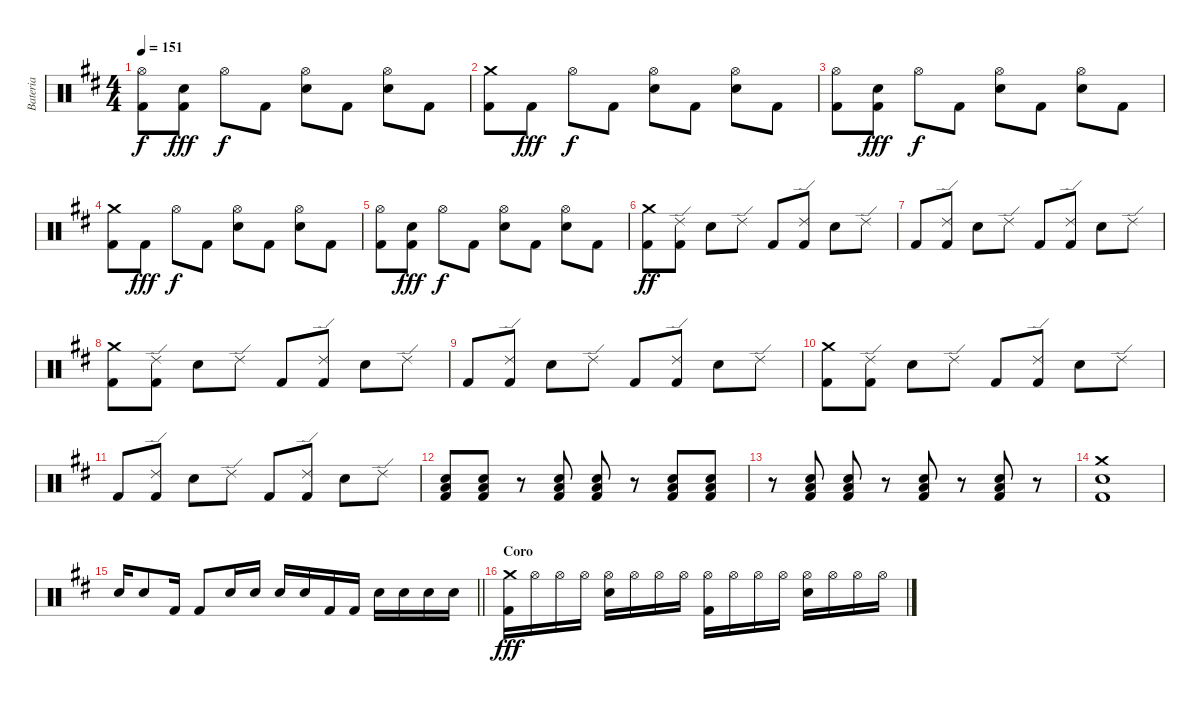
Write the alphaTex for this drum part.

\track ("Bateria " "Bateria ") {instrument percussion}
\staff {score}
\articulation defaults
\ts (4 4)
\tempo 151
\clef neutral
\ks d
("Hi-Hat (open)" "Kick (hit) 2").8{dy f} ("Electric Snare (hit)" "Kick (hit) 2").8{dy fff} "Hi-Hat (open)".8{dy f} "Kick (hit) 2".8 ("Hi-Hat (open)" "Electric Snare (hit)").8 "Kick (hit) 2".8 ("Hi-Hat (open)" "Electric Snare (hit)").8 "Kick (hit) 2".8 |
("Crash medium (hit)" "Kick (hit) 2").8 "Kick (hit) 2".8{dy fff} "Hi-Hat (open)".8{dy f} "Kick (hit) 2".8 ("Hi-Hat (open)" "Electric Snare (hit)").8 "Kick (hit) 2".8 ("Hi-Hat (open)" "Electric Snare (hit)").8 "Kick (hit) 2".8 |
("Hi-Hat (open)" "Kick (hit) 2").8 ("Electric Snare (hit)" "Kick (hit) 2").8{dy fff} "Hi-Hat (open)".8{dy f} "Kick (hit) 2".8 ("Hi-Hat (open)" "Electric Snare (hit)").8 "Kick (hit) 2".8 ("Hi-Hat (open)" "Electric Snare (hit)").8 "Kick (hit) 2".8 |
("Crash medium (hit)" "Kick (hit) 2").8 "Kick (hit) 2".8{dy fff} "Hi-Hat (open)".8{dy f} "Kick (hit) 2".8 ("Hi-Hat (open)" "Electric Snare (hit)").8 "Kick (hit) 2".8 ("Hi-Hat (open)" "Electric Snare (hit)").8 "Kick (hit) 2".8 |
("Hi-Hat (open)" "Kick (hit) 2").8 ("Electric Snare (hit)" "Kick (hit) 2").8{dy fff} "Hi-Hat (open)".8{dy f} "Kick (hit) 2".8 ("Hi-Hat (open)" "Electric Snare (hit)").8 "Kick (hit) 2".8 ("Hi-Hat (open)" "Electric Snare (hit)").8 "Kick (hit) 2".8 |
("Crash medium (hit)" "Kick (hit) 2").8{dy ff} ("Ride (edge) 2" "Kick (hit) 2").8 "Electric Snare (hit)".8 "Ride (edge) 2".8 "Kick (hit) 2".8 ("Ride (edge) 2" "Kick (hit) 2").8 "Electric Snare (hit)".8 "Ride (edge) 2".8 |
"Kick (hit) 2".8 ("Ride (edge) 2" "Kick (hit) 2").8 "Electric Snare (hit)".8 "Ride (edge) 2".8 "Kick (hit) 2".8 ("Ride (edge) 2" "Kick (hit) 2").8 "Electric Snare (hit)".8 "Ride (edge) 2".8 |
("Crash medium (hit)" "Kick (hit) 2").8 ("Ride (edge) 2" "Kick (hit) 2").8 "Electric Snare (hit)".8 "Ride (edge) 2".8 "Kick (hit) 2".8 ("Ride (edge) 2" "Kick (hit) 2").8 "Electric Snare (hit)".8 "Ride (edge) 2".8 |
"Kick (hit) 2".8 ("Ride (edge) 2" "Kick (hit) 2").8 "Electric Snare (hit)".8 "Ride (edge) 2".8 "Kick (hit) 2".8 ("Ride (edge) 2" "Kick (hit) 2").8 "Electric Snare (hit)".8 "Ride (edge) 2".8 |
("Crash medium (hit)" "Kick (hit) 2").8 ("Ride (edge) 2" "Kick (hit) 2").8 "Electric Snare (hit)".8 "Ride (edge) 2".8 "Kick (hit) 2".8 ("Ride (edge) 2" "Kick (hit) 2").8 "Electric Snare (hit)".8 "Ride (edge) 2".8 |
"Kick (hit) 2".8 ("Ride (edge) 2" "Kick (hit) 2").8 "Electric Snare (hit)".8 "Ride (edge) 2".8 "Kick (hit) 2".8 ("Ride (edge) 2" "Kick (hit) 2").8 "Electric Snare (hit)".8 "Ride (edge) 2".8 |
("Electric Snare (hit)" "Low Floor Tom (hit)" "Kick (hit) 2").8 ("Electric Snare (hit)" "Low Floor Tom (hit)" "Kick (hit) 2").8 r.8 ("Electric Snare (hit)" "Low Floor Tom (hit)" "Kick (hit) 2").8 ("Electric Snare (hit)" "Low Floor Tom (hit)" "Kick (hit) 2").8 r.8 ("Electric Snare (hit)" "Low Floor Tom (hit)" "Kick (hit) 2").8 ("Electric Snare (hit)" "Low Floor Tom (hit)" "Kick (hit) 2").8 |
r.8 ("Electric Snare (hit)" "Low Floor Tom (hit)" "Kick (hit) 2").8 ("Electric Snare (hit)" "Low Floor Tom (hit)" "Kick (hit) 2").8 r.8 ("Electric Snare (hit)" "Low Floor Tom (hit)" "Kick (hit) 2").8 r.8 ("Electric Snare (hit)" "Low Floor Tom (hit)" "Kick (hit) 2").8 r.8 |
("Crash medium (hit)" "Electric Snare (hit)" "Kick (hit) 2").1 |
\barLineRight lightlight "Electric Snare (hit)".16 "Electric Snare (hit)".8 "Kick (hit) 2".16 "Kick (hit) 2".8 "Electric Snare (hit)".16 "Electric Snare (hit)".16 "Electric Snare (hit)".16 "Electric Snare (hit)".16 "Kick (hit) 2".16 "Kick (hit) 2".16 "Electric Snare (hit)".16 "Electric Snare (hit)".16 "Electric Snare (hit)".16 "Electric Snare (hit)".16
|
\section ("" "Coro")
("Crash medium (hit)" "Kick (hit) 2").16{dy fff} "Hi-Hat (open)".16 "Hi-Hat (open)".16 "Hi-Hat (open)".16 ("Hi-Hat (open)" "Electric Snare (hit)").16 "Hi-Hat (open)".16 "Hi-Hat (open)".16 "Hi-Hat (open)".16 ("Hi-Hat (open)" "Kick (hit) 2").16 "Hi-Hat (open)".16 "Hi-Hat (open)".16 "Hi-Hat (open)".16 ("Hi-Hat (open)" "Electric Snare (hit)").16 "Hi-Hat (open)".16 "Hi-Hat (open)".16 "Hi-Hat (open)".16
